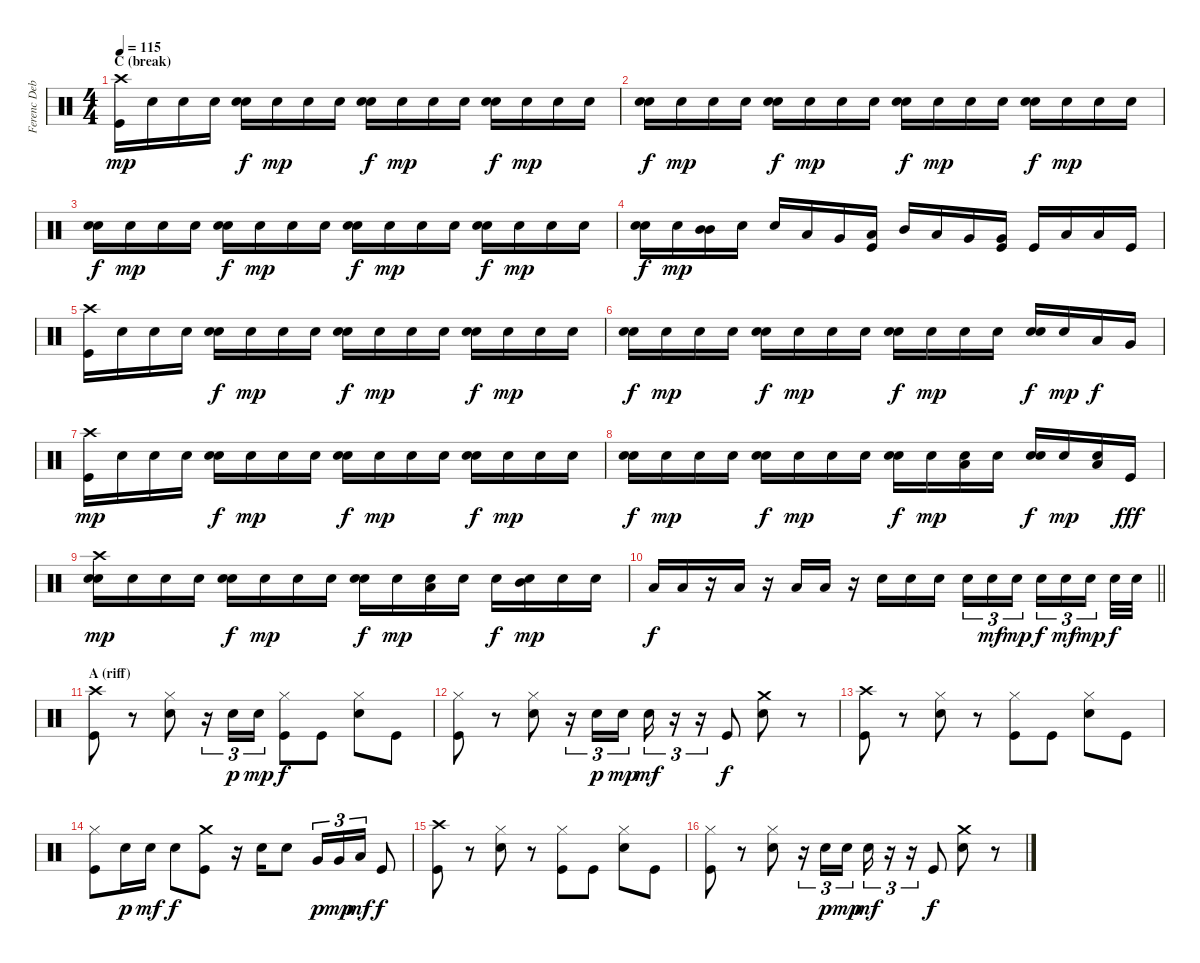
\track ("Ferenc Debreceni \"Ciki\" (Drums)" "Ferenc Deb") {instrument percussion}
\staff {score}
\articulation defaults
\ts (4 4)
\section ("" "C (break)")
\tempo 115
\clef neutral
\ks c
("Crash high (hit)" "Kick (hit)").16{dy mp} "Electric Snare (hit)".16 "Electric Snare (hit)".16 "Electric Snare (hit)".16 ("Electric Snare (hit)" "Electric Snare (hit)").16{dy f} "Electric Snare (hit)".16{dy mp} "Electric Snare (hit)".16 "Electric Snare (hit)".16 ("Electric Snare (hit)" "Electric Snare (hit)").16{dy f} "Electric Snare (hit)".16{dy mp} "Electric Snare (hit)".16 "Electric Snare (hit)".16 ("Electric Snare (hit)" "Electric Snare (hit)").16{dy f} "Electric Snare (hit)".16{dy mp} "Electric Snare (hit)".16 "Electric Snare (hit)".16 |
("Electric Snare (hit)" "Electric Snare (hit)").16{dy f} "Electric Snare (hit)".16{dy mp} "Electric Snare (hit)".16 "Electric Snare (hit)".16 ("Electric Snare (hit)" "Electric Snare (hit)").16{dy f} "Electric Snare (hit)".16{dy mp} "Electric Snare (hit)".16 "Electric Snare (hit)".16 ("Electric Snare (hit)" "Electric Snare (hit)").16{dy f} "Electric Snare (hit)".16{dy mp} "Electric Snare (hit)".16 "Electric Snare (hit)".16 ("Electric Snare (hit)" "Electric Snare (hit)").16{dy f} "Electric Snare (hit)".16{dy mp} "Electric Snare (hit)".16 "Electric Snare (hit)".16 |
("Electric Snare (hit)" "Electric Snare (hit)").16{dy f} "Electric Snare (hit)".16{dy mp} "Electric Snare (hit)".16 "Electric Snare (hit)".16 ("Electric Snare (hit)" "Electric Snare (hit)").16{dy f} "Electric Snare (hit)".16{dy mp} "Electric Snare (hit)".16 "Electric Snare (hit)".16 ("Electric Snare (hit)" "Electric Snare (hit)").16{dy f} "Electric Snare (hit)".16{dy mp} "Electric Snare (hit)".16 "Electric Snare (hit)".16 ("Electric Snare (hit)" "Electric Snare (hit)").16{dy f} "Electric Snare (hit)".16{dy mp} "Electric Snare (hit)".16 "Electric Snare (hit)".16 |
("Electric Snare (hit)" "Electric Snare (hit)").16{dy f} "Electric Snare (hit)".16{dy mp} ("Mid Tom (hit)" "Mid Tom (hit)").16 "Electric Snare (hit)".16 "Electric Snare (hit)".16 "Low Tom (hit)".16 "Very Low Tom (hit)".16 ("Low Floor Tom (hit)" "Kick (hit)").16 "Mid Tom (hit)".16 "Low Tom (hit)".16 "Very Low Tom (hit)".16 ("Very Low Tom (hit)" "Kick (hit)").16 "Kick (hit)".16 "Low Tom (hit)".16 "Low Tom (hit)".16 "Kick (hit)".16 |
("Crash high (hit)" "Kick (hit)").16 "Electric Snare (hit)".16 "Electric Snare (hit)".16 "Electric Snare (hit)".16 ("Electric Snare (hit)" "Electric Snare (hit)").16{dy f} "Electric Snare (hit)".16{dy mp} "Electric Snare (hit)".16 "Electric Snare (hit)".16 ("Electric Snare (hit)" "Electric Snare (hit)").16{dy f} "Electric Snare (hit)".16{dy mp} "Electric Snare (hit)".16 "Electric Snare (hit)".16 ("Electric Snare (hit)" "Electric Snare (hit)").16{dy f} "Electric Snare (hit)".16{dy mp} "Electric Snare (hit)".16 "Electric Snare (hit)".16 |
("Electric Snare (hit)" "Electric Snare (hit)").16{dy f} "Electric Snare (hit)".16{dy mp} "Electric Snare (hit)".16 "Electric Snare (hit)".16 ("Electric Snare (hit)" "Electric Snare (hit)").16{dy f} "Electric Snare (hit)".16{dy mp} "Electric Snare (hit)".16 "Electric Snare (hit)".16 ("Electric Snare (hit)" "Electric Snare (hit)").16{dy f} "Electric Snare (hit)".16{dy mp} "Electric Snare (hit)".16 "Electric Snare (hit)".16 ("Electric Snare (hit)" "Electric Snare (hit)").16{dy f} "Electric Snare (hit)".16{dy mp} "Low Tom (hit)".16{dy f} "Very Low Tom (hit)".16 |
("Crash high (hit)" "Kick (hit)").16{dy mp} "Electric Snare (hit)".16 "Electric Snare (hit)".16 "Electric Snare (hit)".16 ("Electric Snare (hit)" "Electric Snare (hit)").16{dy f} "Electric Snare (hit)".16{dy mp} "Electric Snare (hit)".16 "Electric Snare (hit)".16 ("Electric Snare (hit)" "Electric Snare (hit)").16{dy f} "Electric Snare (hit)".16{dy mp} "Electric Snare (hit)".16 "Electric Snare (hit)".16 ("Electric Snare (hit)" "Electric Snare (hit)").16{dy f} "Electric Snare (hit)".16{dy mp} "Electric Snare (hit)".16 "Electric Snare (hit)".16 |
("Electric Snare (hit)" "Electric Snare (hit)").16{dy f} "Electric Snare (hit)".16{dy mp} "Electric Snare (hit)".16 "Electric Snare (hit)".16 ("Electric Snare (hit)" "Electric Snare (hit)").16{dy f} "Electric Snare (hit)".16{dy mp} "Electric Snare (hit)".16 "Electric Snare (hit)".16 ("Electric Snare (hit)" "Electric Snare (hit)").16{dy f} "Electric Snare (hit)".16{dy mp} ("Low Tom (hit)" "Electric Snare (hit)").16 "Electric Snare (hit)".16 ("Electric Snare (hit)" "Electric Snare (hit)").16{dy f} "Electric Snare (hit)".16{dy mp} ("Low Floor Tom (hit)" "Electric Snare (hit)").16 "Kick (hit)".16{dy fff} |
("Crash high (hit)" "Electric Snare (hit)" "Electric Snare (hit)").16{dy mp} "Electric Snare (hit)".16 "Electric Snare (hit)".16 "Electric Snare (hit)".16 ("Electric Snare (hit)" "Electric Snare (hit)").16{dy f} "Electric Snare (hit)".16{dy mp} "Electric Snare (hit)".16 "Electric Snare (hit)".16 ("Electric Snare (hit)" "Electric Snare (hit)").16{dy f} "Electric Snare (hit)".16{dy mp} ("Low Tom (hit)" "Electric Snare (hit)").16 "Electric Snare (hit)".16 "Electric Snare (hit)".16{dy f} ("Mid Tom (hit)" "Electric Snare (hit)").16{dy mp} "Electric Snare (hit)".16 "Electric Snare (hit)".16 |
\barLineRight lightlight "Low Tom (hit)".16{dy f} "Low Tom (hit)".16
r.16 "Low Tom (hit)".16 r.16 "Low Tom (hit)".16 "Low Tom (hit)".16 r.16 "Electric Snare (hit)".16 "Electric Snare (hit)".16 "Electric Snare (hit)".16{beam splitsecondary} "Electric Snare (hit)".16{tu (3 2)} "Electric Snare (hit)".16{tu (3 2) dy mf} "Electric Snare (hit)".16{tu (3 2) dy mp beam splitsecondary} "Electric Snare (hit)".16{tu (3 2) dy f} "Electric Snare (hit)".16{tu (3 2) dy mf} "Electric Snare (hit)".16{tu (3 2) dy mp beam splitsecondary} "Electric Snare (hit)".32{dy f} "Electric Snare (hit)".32 |
\section ("" "A (riff)")
("Crash high (hit)" "Kick (hit)").8 r.8 ("Hi-Hat (closed)" "Electric Snare (hit)").8 r.16{tu (3 2)} "Electric Snare (hit)".16{tu (3 2) dy p} "Electric Snare (hit)".16{tu (3 2) dy mp} ("Hi-Hat (closed)" "Kick (hit)").8{dy f} "Kick (hit)".8 ("Hi-Hat (closed)" "Electric Snare (hit)").8 "Kick (hit)".8 |
("Hi-Hat (closed)" "Kick (hit)").8 r.8 ("Hi-Hat (closed)" "Electric Snare (hit)").8 r.16{tu (3 2)} "Electric Snare (hit)".16{tu (3 2) dy p} "Electric Snare (hit)".16{tu (3 2) dy mp} "Electric Snare (hit)".16{tu (3 2) dy mf} r.16{tu (3 2)} r.16{tu (3 2)} "Kick (hit)".8{dy f} ("Crash medium (hit)" "Electric Snare (hit)").8 r.8 |
("Crash high (hit)" "Kick (hit)").8 r.8 ("Hi-Hat (closed)" "Electric Snare (hit)").8 r.8 ("Hi-Hat (closed)" "Kick (hit)").8 "Kick (hit)".8 ("Hi-Hat (closed)" "Electric Snare (hit)").8 "Kick (hit)".8 |
("Hi-Hat (closed)" "Kick (hit)").8 "Electric Snare (hit)".16{dy p} "Electric Snare (hit)".16{dy mf} "Electric Snare (hit)".8{dy f} ("Crash medium (hit)" "Kick (hit)").8 r.16 "Electric Snare (hit)".16 "Electric Snare (hit)".8 "Very Low Tom (hit)".16{tu (3 2) dy p} "Very Low Tom (hit)".16{tu (3 2) dy mp} "Low Floor Tom (hit)".16{tu (3 2) dy mf} "Kick (hit)".8{dy f} |
("Crash high (hit)" "Kick (hit)").8 r.8 ("Hi-Hat (closed)" "Electric Snare (hit)").8 r.8 ("Hi-Hat (closed)" "Kick (hit)").8 "Kick (hit)".8 ("Hi-Hat (closed)" "Electric Snare (hit)").8 "Kick (hit)".8 |
("Hi-Hat (closed)" "Kick (hit)").8 r.8 ("Hi-Hat (closed)" "Electric Snare (hit)").8 r.16{tu (3 2)} "Electric Snare (hit)".16{tu (3 2) dy p} "Electric Snare (hit)".16{tu (3 2) dy mp} "Electric Snare (hit)".16{tu (3 2) dy mf} r.16{tu (3 2)} r.16{tu (3 2)} "Kick (hit)".8{dy f} ("Crash medium (hit)" "Electric Snare (hit)").8 r.8
